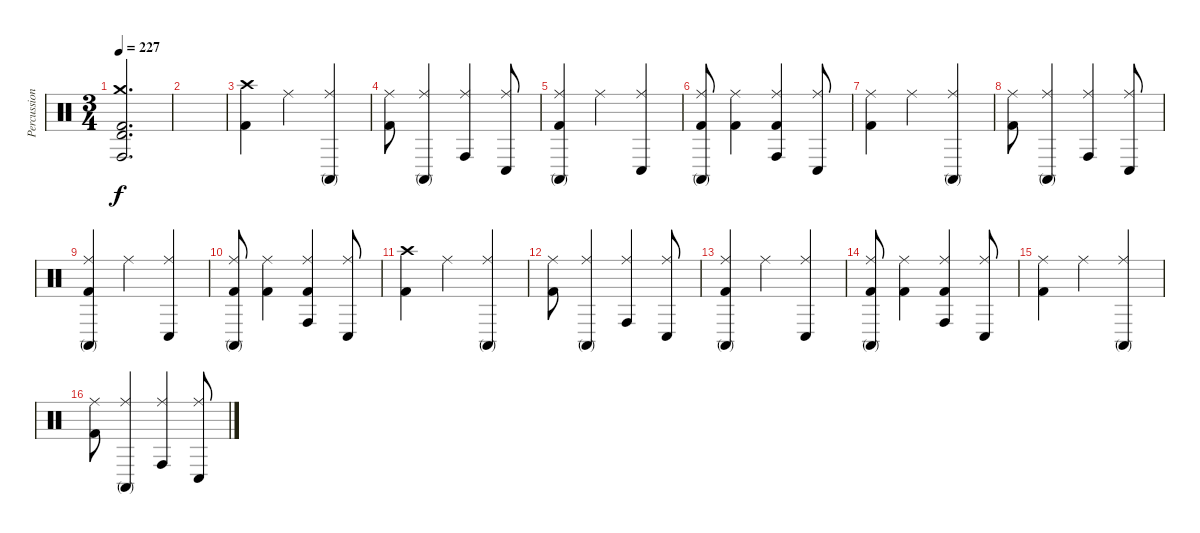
\track ("Percussion" "Percussion") {instrument percussion}
\staff {score}
\articulation defaults
\ts (3 4)
\tempo 227
\clef neutral
\ks c
("Timbale high (hit)" "Conga high (hit)" "Crash medium (hit)" "Kick (hit) 2").2{d dy f} |
|
("Crash high (hit)" "Kick (hit) 2").4 "Ride (middle)".4 ("Ride (middle)" "Conga high (mute)").4 |
("Ride (middle)" "Kick (hit) 2").8 ("Ride (middle)" "Conga high (mute)").4 ("Ride (middle)" "Conga high (hit)").4 ("Ride (middle)" "Conga low (hit)").8 |
("Ride (middle)" "Conga high (mute)" "Kick (hit) 2").4 "Ride (middle)".4 ("Ride (middle)" "Conga low (hit)").4 |
("Ride (middle)" "Conga high (mute)" "Kick (hit) 2").8 ("Ride (middle)" "Kick (hit) 2").4 ("Ride (middle)" "Conga high (hit)" "Kick (hit) 2").4 ("Ride (middle)" "Conga low (hit)").8 |
("Ride (middle)" "Kick (hit) 2").4 "Ride (middle)".4 ("Ride (middle)" "Conga high (mute)").4 |
("Ride (middle)" "Kick (hit) 2").8 ("Ride (middle)" "Conga high (mute)").4 ("Ride (middle)" "Conga high (hit)").4 ("Ride (middle)" "Conga low (hit)").8 |
("Ride (middle)" "Conga high (mute)" "Kick (hit) 2").4 "Ride (middle)".4 ("Ride (middle)" "Conga low (hit)").4 |
("Ride (middle)" "Conga high (mute)" "Kick (hit) 2").8 ("Ride (middle)" "Kick (hit) 2").4 ("Ride (middle)" "Conga high (hit)" "Kick (hit) 2").4 ("Ride (middle)" "Conga low (hit)").8 |
("Crash high (hit)" "Kick (hit) 2").4 "Ride (middle)".4 ("Ride (middle)" "Conga high (mute)").4 |
("Ride (middle)" "Kick (hit) 2").8 ("Ride (middle)" "Conga high (mute)").4 ("Ride (middle)" "Conga high (hit)").4 ("Ride (middle)" "Conga low (hit)").8 |
("Ride (middle)" "Conga high (mute)" "Kick (hit) 2").4 "Ride (middle)".4 ("Ride (middle)" "Conga low (hit)").4 |
("Ride (middle)" "Conga high (mute)" "Kick (hit) 2").8 ("Ride (middle)" "Kick (hit) 2").4 ("Ride (middle)" "Conga high (hit)" "Kick (hit) 2").4 ("Ride (middle)" "Conga low (hit)").8 |
("Ride (middle)" "Kick (hit) 2").4 "Ride (middle)".4 ("Ride (middle)" "Conga high (mute)").4 |
("Ride (middle)" "Kick (hit) 2").8 ("Ride (middle)" "Conga high (mute)").4 ("Ride (middle)" "Conga high (hit)").4 ("Ride (middle)" "Conga low (hit)").8
